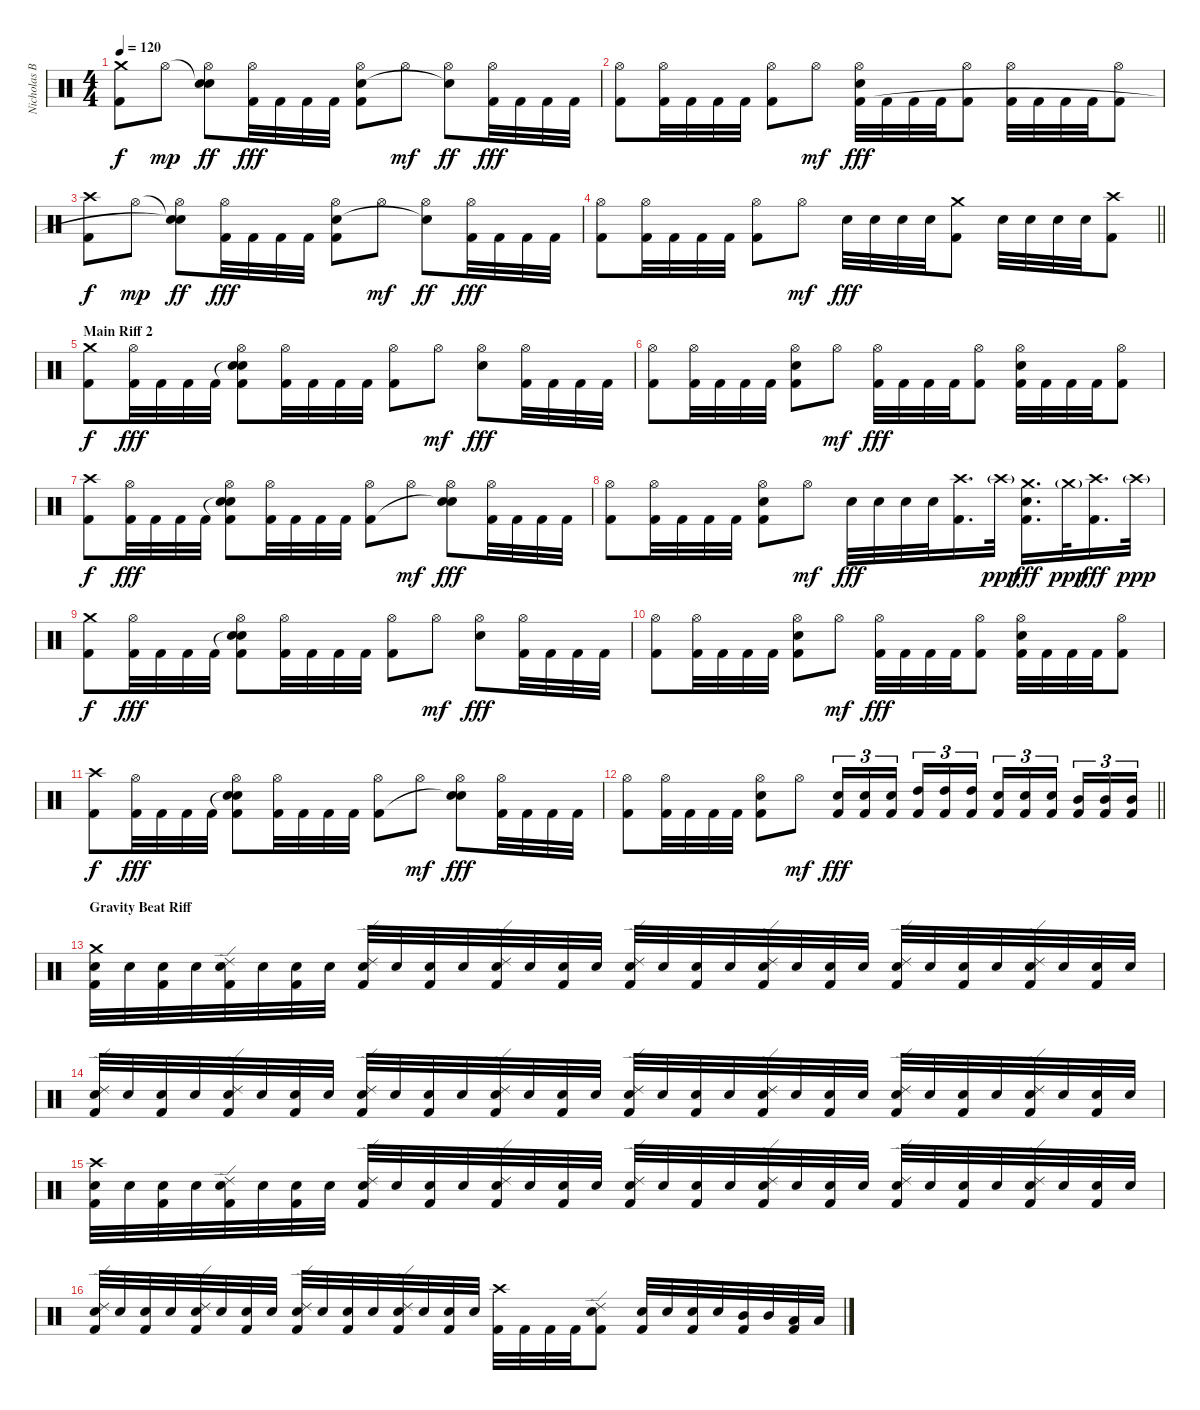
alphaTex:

\track ("Nicholas Barker" "Nicholas B") {instrument percussion}
\staff {score}
\articulation defaults
\ts (4 4)
\tempo 120
\clef neutral
\ks c
("Crash medium (hit)" "Kick (hit) 2").8{dy f} "Hi-Hat (open)".8{dy mp} ("Snare (hit)"{t} "Hi-Hat (open)" "Snare (hit)"{t}).8{dy ff} ("Hi-Hat (open)" "Kick (hit) 2").32{dy fff} "Kick (hit) 2".32 "Kick (hit) 2".32 "Kick (hit) 2".32 ("Hi-Hat (open)" "Snare (hit) 2" "Kick (hit) 2").8 "Hi-Hat (open)".8{dy mf} ("Hi-Hat (open)" "Snare (hit)"{t}).8{dy ff} ("Hi-Hat (open)" "Kick (hit) 2").32{dy fff} "Kick (hit) 2".32 "Kick (hit) 2".32 "Kick (hit) 2".32 |
("Hi-Hat (open)" "Kick (hit) 2").8 ("Hi-Hat (open)" "Kick (hit) 2").32 "Kick (hit) 2".32 "Kick (hit) 2".32 "Kick (hit) 2".32 ("Hi-Hat (open)" "Kick (hit) 2").8 "Hi-Hat (open)".8{dy mf} ("Hi-Hat (open)" "Snare (hit) 2" "Kick (hit) 2").32{dy fff} "Kick (hit) 2".32 "Kick (hit) 2".32 "Kick (hit) 2".32 ("Hi-Hat (open)" "Kick (hit) 2").8 ("Hi-Hat (open)" "Kick (hit) 2").32 "Kick (hit) 2".32 "Kick (hit) 2".32 "Kick (hit) 2".32 ("Hi-Hat (open)" "Kick (hit) 2").8 |
("Crash high (hit)" "Kick (hit) 2").8{dy f} "Hi-Hat (open)".8{dy mp} ("Snare (hit)"{t} "Hi-Hat (open)" "Snare (hit)"{t}).8{dy ff} ("Hi-Hat (open)" "Kick (hit) 2").32{dy fff} "Kick (hit) 2".32 "Kick (hit) 2".32 "Kick (hit) 2".32 ("Hi-Hat (open)" "Snare (hit) 2" "Kick (hit) 2").8 "Hi-Hat (open)".8{dy mf} ("Hi-Hat (open)" "Snare (hit)"{t}).8{dy ff} ("Hi-Hat (open)" "Kick (hit) 2").32{dy fff} "Kick (hit) 2".32 "Kick (hit) 2".32 "Kick (hit) 2".32 |
\barLineRight lightlight
("Hi-Hat (open)" "Kick (hit) 2").8 ("Hi-Hat (open)" "Kick (hit) 2").32 "Kick (hit) 2".32 "Kick (hit) 2".32 "Kick (hit) 2".32 ("Hi-Hat (open)" "Kick (hit) 2").8 "Hi-Hat (open)".8{dy mf} "Snare (hit) 2".32{dy fff} "Snare (hit) 2".32 "Snare (hit) 2".32 "Snare (hit) 2".32 ("Crash medium (hit)" "Kick (hit) 2").8 "Snare (hit) 2".32 "Snare (hit) 2".32 "Snare (hit) 2".32 "Snare (hit) 2".32 ("Crash high (hit)" "Kick (hit) 2").8 |
\section ("" "Main Riff 2")
("Crash medium (hit)" "Kick (hit) 2").8{dy f} ("Hi-Hat (open)" "Kick (hit) 2").32{dy fff} "Kick (hit) 2".32 "Kick (hit) 2".32 "Kick (hit) 2".32 ("Snare (hit)"{t} "Hi-Hat (open)" "Snare (hit) 2" "Kick (hit) 2").8 ("Hi-Hat (open)" "Kick (hit) 2").32 "Kick (hit) 2".32 "Kick (hit) 2".32 "Kick (hit) 2".32 ("Hi-Hat (open)" "Kick (hit) 2").8 "Hi-Hat (open)".8{dy mf} ("Hi-Hat (open)" "Snare (hit) 2").8{dy fff} ("Hi-Hat (open)" "Kick (hit) 2").32 "Kick (hit) 2".32 "Kick (hit) 2".32 "Kick (hit) 2".32 |
("Hi-Hat (open)" "Kick (hit) 2").8 ("Hi-Hat (open)" "Kick (hit) 2").32 "Kick (hit) 2".32 "Kick (hit) 2".32 "Kick (hit) 2".32 ("Hi-Hat (open)" "Snare (hit) 2" "Kick (hit) 2").8 "Hi-Hat (open)".8{dy mf} ("Hi-Hat (open)" "Kick (hit) 2").32{dy fff} "Kick (hit) 2".32 "Kick (hit) 2".32 "Kick (hit) 2".32 ("Hi-Hat (open)" "Kick (hit) 2").8 ("Hi-Hat (open)" "Snare (hit) 2" "Kick (hit) 2").32 "Kick (hit) 2".32 "Kick (hit) 2".32 "Kick (hit) 2".32 ("Hi-Hat (open)" "Kick (hit) 2").8 |
("Crash high (hit)" "Kick (hit) 2").8{dy f} ("Hi-Hat (open)" "Kick (hit) 2").32{dy fff} "Kick (hit) 2".32 "Kick (hit) 2".32 "Kick (hit) 2".32 ("Snare (hit)"{t} "Hi-Hat (open)" "Snare (hit) 2" "Kick (hit) 2").8 ("Hi-Hat (open)" "Kick (hit) 2").32 "Kick (hit) 2".32 "Kick (hit) 2".32 "Kick (hit) 2".32 ("Hi-Hat (open)" "Kick (hit) 2").8 "Hi-Hat (open)".8{dy mf} ("Hi-Hat (open)" "Snare (hit)"{t} "Snare (hit) 2").8{dy fff} ("Hi-Hat (open)" "Kick (hit) 2").32 "Kick (hit) 2".32 "Kick (hit) 2".32 "Kick (hit) 2".32 |
("Hi-Hat (open)" "Kick (hit) 2").8 ("Hi-Hat (open)" "Kick (hit) 2").32 "Kick (hit) 2".32 "Kick (hit) 2".32 "Kick (hit) 2".32 ("Hi-Hat (open)" "Snare (hit) 2" "Kick (hit) 2").8 "Hi-Hat (open)".8{dy mf} "Snare (hit) 2".32{dy fff} "Snare (hit) 2".32 "Snare (hit) 2".32 "Snare (hit) 2".32 ("Crash high (hit)" "Kick (hit) 2").16{d} "Crash high (hit)"{g}.32{dy ppp} ("Crash medium (hit)" "Snare (hit) 2" "Kick (hit) 2").16{d dy fff} "Crash medium (hit)"{g}.32{dy ppp} ("Crash high (hit)" "Kick (hit) 2").16{d dy fff} "Crash high (hit)"{g}.32{dy ppp} |
("Crash medium (hit)" "Kick (hit) 2").8{dy f} ("Hi-Hat (open)" "Kick (hit) 2").32{dy fff} "Kick (hit) 2".32 "Kick (hit) 2".32 "Kick (hit) 2".32 ("Snare (hit)"{t} "Hi-Hat (open)" "Snare (hit) 2" "Kick (hit) 2").8 ("Hi-Hat (open)" "Kick (hit) 2").32 "Kick (hit) 2".32 "Kick (hit) 2".32 "Kick (hit) 2".32 ("Hi-Hat (open)" "Kick (hit) 2").8 "Hi-Hat (open)".8{dy mf} ("Hi-Hat (open)" "Snare (hit) 2").8{dy fff} ("Hi-Hat (open)" "Kick (hit) 2").32 "Kick (hit) 2".32 "Kick (hit) 2".32 "Kick (hit) 2".32 |
("Hi-Hat (open)" "Kick (hit) 2").8 ("Hi-Hat (open)" "Kick (hit) 2").32 "Kick (hit) 2".32 "Kick (hit) 2".32 "Kick (hit) 2".32 ("Hi-Hat (open)" "Snare (hit) 2" "Kick (hit) 2").8 "Hi-Hat (open)".8{dy mf} ("Hi-Hat (open)" "Kick (hit) 2").32{dy fff} "Kick (hit) 2".32 "Kick (hit) 2".32 "Kick (hit) 2".32 ("Hi-Hat (open)" "Kick (hit) 2").8 ("Hi-Hat (open)" "Snare (hit) 2" "Kick (hit) 2").32 "Kick (hit) 2".32 "Kick (hit) 2".32 "Kick (hit) 2".32 ("Hi-Hat (open)" "Kick (hit) 2").8 |
("Crash high (hit)" "Kick (hit) 2").8{dy f} ("Hi-Hat (open)" "Kick (hit) 2").32{dy fff} "Kick (hit) 2".32 "Kick (hit) 2".32 "Kick (hit) 2".32 ("Snare (hit)"{t} "Hi-Hat (open)" "Snare (hit) 2" "Kick (hit) 2").8 ("Hi-Hat (open)" "Kick (hit) 2").32 "Kick (hit) 2".32 "Kick (hit) 2".32 "Kick (hit) 2".32 ("Hi-Hat (open)" "Kick (hit) 2").8 "Hi-Hat (open)".8{dy mf} ("Hi-Hat (open)" "Snare (hit)"{t} "Snare (hit) 2").8{dy fff} ("Hi-Hat (open)" "Kick (hit) 2").32 "Kick (hit) 2".32 "Kick (hit) 2".32 "Kick (hit) 2".32 |
\barLineRight lightlight
("Hi-Hat (open)" "Kick (hit) 2").8 ("Hi-Hat (open)" "Kick (hit) 2").32 "Kick (hit) 2".32 "Kick (hit) 2".32 "Kick (hit) 2".32 ("Hi-Hat (open)" "Snare (hit) 2" "Kick (hit) 2").8 "Hi-Hat (open)".8{dy mf} ("Snare (hit) 2" "Kick (hit) 2").16{tu (3 2) dy fff} ("Snare (hit) 2" "Kick (hit) 2").16{tu (3 2)} ("Snare (hit) 2" "Kick (hit) 2").16{tu (3 2) beam splitsecondary} ("High Tom (hit)" "Kick (hit) 2").16{tu (3 2)} ("High Tom (hit)" "Kick (hit) 2").16{tu (3 2)} ("High Tom (hit)" "Kick (hit) 2").16{tu (3 2)} ("Snare (hit) 2" "Kick (hit) 2").16{tu (3 2)} ("Snare (hit) 2" "Kick (hit) 2").16{tu (3 2)} ("Snare (hit) 2" "Kick (hit) 2").16{tu (3 2) beam splitsecondary} ("Mid Tom (hit)" "Kick (hit) 2").16{tu (3 2)} ("Mid Tom (hit)" "Kick (hit) 2").16{tu (3 2)} ("Mid Tom (hit)" "Kick (hit) 2").16{tu (3 2)} |
\section ("" "Gravity Beat Riff")
("Crash medium (hit)" "Snare (hit) 2" "Kick (hit) 2").32 "Snare (hit) 2".32 ("Snare (hit) 2" "Kick (hit) 2").32 "Snare (hit) 2".32 ("Ride (edge) 2" "Snare (hit) 2" "Kick (hit) 2").32 "Snare (hit) 2".32 ("Snare (hit) 2" "Kick (hit) 2").32 "Snare (hit) 2".32 ("Ride (edge) 2" "Snare (hit) 2" "Kick (hit) 2").32 "Snare (hit) 2".32 ("Snare (hit) 2" "Kick (hit) 2").32 "Snare (hit) 2".32 ("Ride (edge) 2" "Snare (hit) 2" "Kick (hit) 2").32 "Snare (hit) 2".32 ("Snare (hit) 2" "Kick (hit) 2").32 "Snare (hit) 2".32 ("Ride (edge) 2" "Snare (hit) 2" "Kick (hit) 2").32 "Snare (hit) 2".32 ("Snare (hit) 2" "Kick (hit) 2").32 "Snare (hit) 2".32 ("Ride (edge) 2" "Snare (hit) 2" "Kick (hit) 2").32 "Snare (hit) 2".32 ("Snare (hit) 2" "Kick (hit) 2").32 "Snare (hit) 2".32 ("Ride (edge) 2" "Snare (hit) 2" "Kick (hit) 2").32 "Snare (hit) 2".32 ("Snare (hit) 2" "Kick (hit) 2").32 "Snare (hit) 2".32 ("Ride (edge) 2" "Snare (hit) 2" "Kick (hit) 2").32 "Snare (hit) 2".32 ("Snare (hit) 2" "Kick (hit) 2").32 "Snare (hit) 2".32 |
("Ride (edge) 2" "Snare (hit) 2" "Kick (hit) 2").32 "Snare (hit) 2".32 ("Snare (hit) 2" "Kick (hit) 2").32 "Snare (hit) 2".32 ("Ride (edge) 2" "Snare (hit) 2" "Kick (hit) 2").32 "Snare (hit) 2".32 ("Snare (hit) 2" "Kick (hit) 2").32 "Snare (hit) 2".32 ("Ride (edge) 2" "Snare (hit) 2" "Kick (hit) 2").32 "Snare (hit) 2".32 ("Snare (hit) 2" "Kick (hit) 2").32 "Snare (hit) 2".32 ("Ride (edge) 2" "Snare (hit) 2" "Kick (hit) 2").32 "Snare (hit) 2".32 ("Snare (hit) 2" "Kick (hit) 2").32 "Snare (hit) 2".32 ("Ride (edge) 2" "Snare (hit) 2" "Kick (hit) 2").32 "Snare (hit) 2".32 ("Snare (hit) 2" "Kick (hit) 2").32 "Snare (hit) 2".32 ("Ride (edge) 2" "Snare (hit) 2" "Kick (hit) 2").32 "Snare (hit) 2".32 ("Snare (hit) 2" "Kick (hit) 2").32 "Snare (hit) 2".32 ("Ride (edge) 2" "Snare (hit) 2" "Kick (hit) 2").32 "Snare (hit) 2".32 ("Snare (hit) 2" "Kick (hit) 2").32 "Snare (hit) 2".32 ("Ride (edge) 2" "Snare (hit) 2" "Kick (hit) 2").32 "Snare (hit) 2".32 ("Snare (hit) 2" "Kick (hit) 2").32 "Snare (hit) 2".32 |
("Crash high (hit)" "Snare (hit) 2" "Kick (hit) 2").32 "Snare (hit) 2".32 ("Snare (hit) 2" "Kick (hit) 2").32 "Snare (hit) 2".32 ("Ride (edge) 2" "Snare (hit) 2" "Kick (hit) 2").32 "Snare (hit) 2".32 ("Snare (hit) 2" "Kick (hit) 2").32 "Snare (hit) 2".32 ("Ride (edge) 2" "Snare (hit) 2" "Kick (hit) 2").32 "Snare (hit) 2".32 ("Snare (hit) 2" "Kick (hit) 2").32 "Snare (hit) 2".32 ("Ride (edge) 2" "Snare (hit) 2" "Kick (hit) 2").32 "Snare (hit) 2".32 ("Snare (hit) 2" "Kick (hit) 2").32 "Snare (hit) 2".32 ("Ride (edge) 2" "Snare (hit) 2" "Kick (hit) 2").32 "Snare (hit) 2".32 ("Snare (hit) 2" "Kick (hit) 2").32 "Snare (hit) 2".32 ("Ride (edge) 2" "Snare (hit) 2" "Kick (hit) 2").32 "Snare (hit) 2".32 ("Snare (hit) 2" "Kick (hit) 2").32 "Snare (hit) 2".32 ("Ride (edge) 2" "Snare (hit) 2" "Kick (hit) 2").32 "Snare (hit) 2".32 ("Snare (hit) 2" "Kick (hit) 2").32 "Snare (hit) 2".32 ("Ride (edge) 2" "Snare (hit) 2" "Kick (hit) 2").32 "Snare (hit) 2".32 ("Snare (hit) 2" "Kick (hit) 2").32 "Snare (hit) 2".32 |
("Ride (edge) 2" "Snare (hit) 2" "Kick (hit) 2").32 "Snare (hit) 2".32 ("Snare (hit) 2" "Kick (hit) 2").32 "Snare (hit) 2".32 ("Ride (edge) 2" "Snare (hit) 2" "Kick (hit) 2").32 "Snare (hit) 2".32 ("Snare (hit) 2" "Kick (hit) 2").32 "Snare (hit) 2".32 ("Ride (edge) 2" "Snare (hit) 2" "Kick (hit) 2").32 "Snare (hit) 2".32 ("Snare (hit) 2" "Kick (hit) 2").32 "Snare (hit) 2".32 ("Ride (edge) 2" "Snare (hit) 2" "Kick (hit) 2").32 "Snare (hit) 2".32 ("Snare (hit) 2" "Kick (hit) 2").32 "Snare (hit) 2".32 ("Crash high (hit)" "Kick (hit) 2").32 "Kick (hit) 2".32 "Kick (hit) 2".32 "Kick (hit) 2".32 ("Ride (edge) 2" "Snare (hit) 2" "Kick (hit) 2").8 ("Snare (hit) 2" "Kick (hit) 2").32 "Snare (hit) 2".32 ("Snare (hit) 2" "Kick (hit) 2").32 "Snare (hit) 2".32 ("Mid Tom (hit)" "Kick (hit) 2").32 "Mid Tom (hit)".32 ("Low Tom (hit)" "Kick (hit) 2").32 "Low Tom (hit)".32
